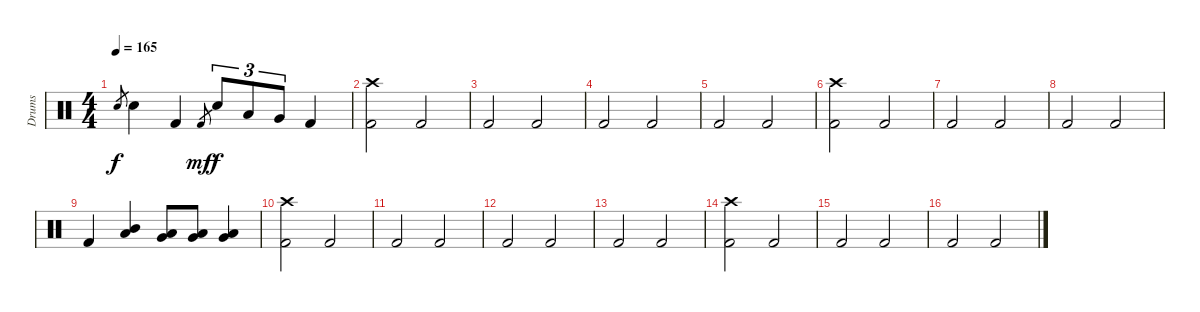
\track ("Drums" "Drums") {instrument percussion}
\staff {score}
\articulation defaults
\ts (4 4)
\tempo 165
\clef neutral
\ks c "Snare (hit) 2".8{gr dy f} "Snare (hit) 2".4 "Kick (hit) 2".4 "Kick (hit) 2".8{gr dy mf} "Snare (hit) 2".8{tu (3 2) dy f} "Low Tom (hit)".8{tu (3 2)} "Very Low Tom (hit)".8{tu (3 2)} "Kick (hit) 2".4
|
("Kick (hit) 2" "Crash high (hit)").2 "Kick (hit) 2".2 |
"Kick (hit) 2".2 "Kick (hit) 2".2 |
"Kick (hit) 2".2 "Kick (hit) 2".2 |
"Kick (hit) 2".2 "Kick (hit) 2".2 |
("Kick (hit) 2" "Crash high (hit)").2 "Kick (hit) 2".2 |
"Kick (hit) 2".2 "Kick (hit) 2".2 |
"Kick (hit) 2".2 "Kick (hit) 2".2 |
"Kick (hit) 2".4 ("Low Tom (hit)" "Mid Tom (hit)").4 ("Very Low Tom (hit)" "Low Tom (hit)").8 ("Very Low Tom (hit)" "Low Tom (hit)").8 ("Low Floor Tom (hit)" "Very Low Tom (hit)").4 |
("Kick (hit) 2" "Crash high (hit)").2 "Kick (hit) 2".2 |
"Kick (hit) 2".2 "Kick (hit) 2".2 |
"Kick (hit) 2".2 "Kick (hit) 2".2 |
"Kick (hit) 2".2 "Kick (hit) 2".2 |
("Kick (hit) 2" "Crash high (hit)").2 "Kick (hit) 2".2 |
"Kick (hit) 2".2 "Kick (hit) 2".2 |
"Kick (hit) 2".2 "Kick (hit) 2".2
